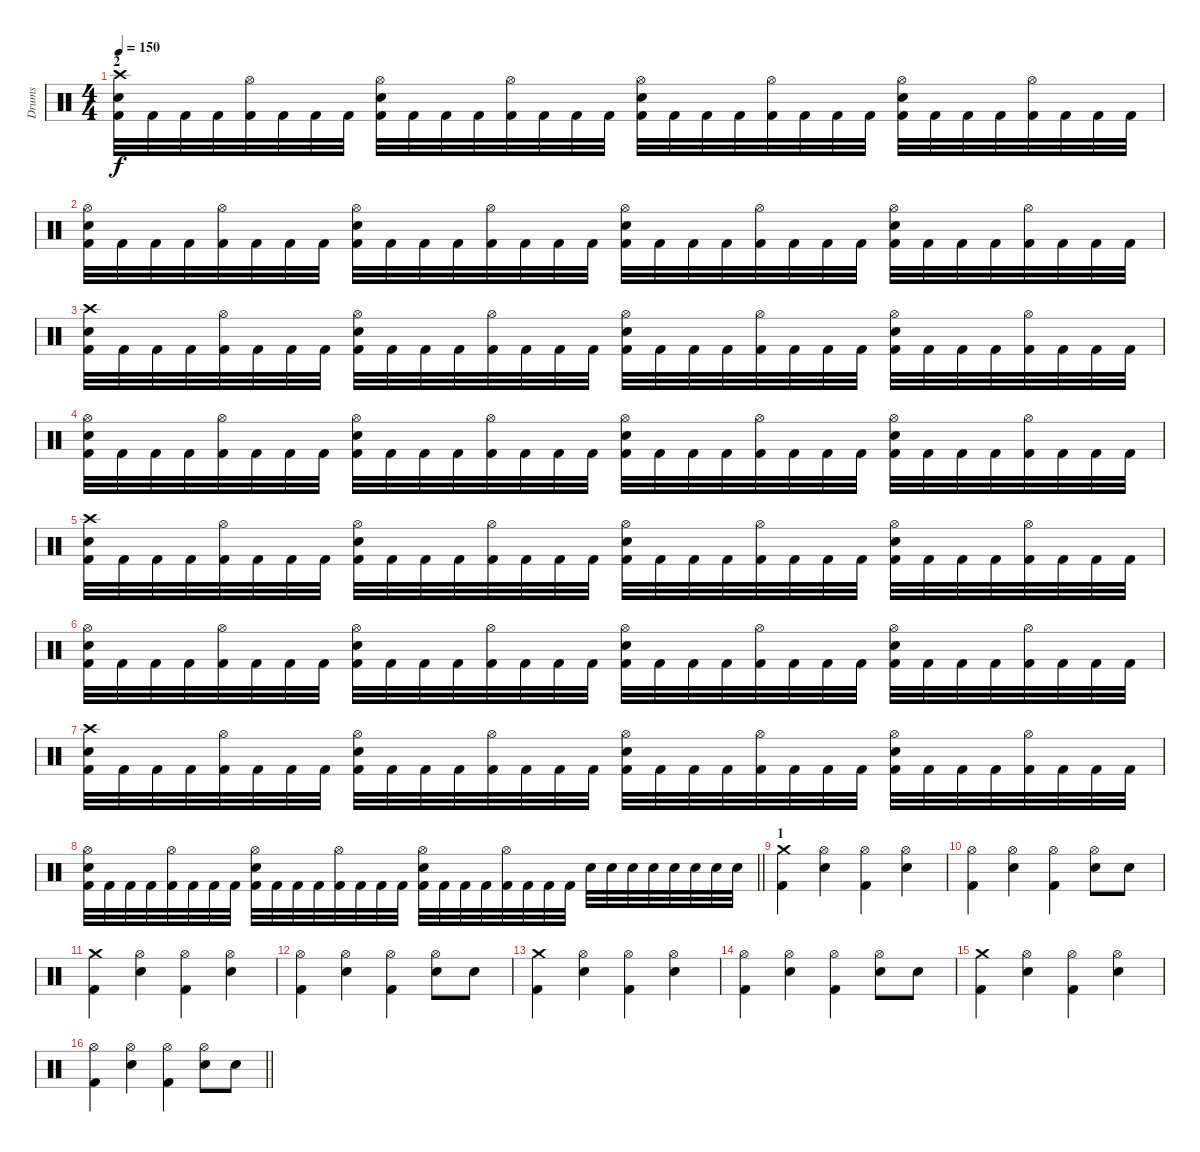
\track ("Drums" "Drums") {instrument percussion}
\staff {score}
\articulation defaults
\ts (4 4)
\section ("" "2")
\tempo 150
\clef neutral
\ks c
("Crash high (hit)" "Snare (hit) 2" "Kick (hit) 2").32{dy f} "Kick (hit) 2".32 "Kick (hit) 2".32 "Kick (hit) 2".32 ("Hi-Hat (open)" "Kick (hit) 2").32 "Kick (hit) 2".32 "Kick (hit) 2".32 "Kick (hit) 2".32 ("Hi-Hat (open)" "Snare (hit) 2" "Kick (hit) 2").32 "Kick (hit) 2".32 "Kick (hit) 2".32 "Kick (hit) 2".32 ("Hi-Hat (open)" "Kick (hit) 2").32 "Kick (hit) 2".32 "Kick (hit) 2".32 "Kick (hit) 2".32 ("Hi-Hat (open)" "Snare (hit) 2" "Kick (hit) 2").32 "Kick (hit) 2".32 "Kick (hit) 2".32 "Kick (hit) 2".32 ("Hi-Hat (open)" "Kick (hit) 2").32 "Kick (hit) 2".32 "Kick (hit) 2".32 "Kick (hit) 2".32 ("Hi-Hat (open)" "Snare (hit) 2" "Kick (hit) 2").32 "Kick (hit) 2".32 "Kick (hit) 2".32 "Kick (hit) 2".32 ("Hi-Hat (open)" "Kick (hit) 2").32 "Kick (hit) 2".32 "Kick (hit) 2".32 "Kick (hit) 2".32 |
("Hi-Hat (open)" "Snare (hit) 2" "Kick (hit) 2").32 "Kick (hit) 2".32 "Kick (hit) 2".32 "Kick (hit) 2".32 ("Hi-Hat (open)" "Kick (hit) 2").32 "Kick (hit) 2".32 "Kick (hit) 2".32 "Kick (hit) 2".32 ("Hi-Hat (open)" "Snare (hit) 2" "Kick (hit) 2").32 "Kick (hit) 2".32 "Kick (hit) 2".32 "Kick (hit) 2".32 ("Hi-Hat (open)" "Kick (hit) 2").32 "Kick (hit) 2".32 "Kick (hit) 2".32 "Kick (hit) 2".32 ("Hi-Hat (open)" "Snare (hit) 2" "Kick (hit) 2").32 "Kick (hit) 2".32 "Kick (hit) 2".32 "Kick (hit) 2".32 ("Hi-Hat (open)" "Kick (hit) 2").32 "Kick (hit) 2".32 "Kick (hit) 2".32 "Kick (hit) 2".32 ("Hi-Hat (open)" "Snare (hit) 2" "Kick (hit) 2").32 "Kick (hit) 2".32 "Kick (hit) 2".32 "Kick (hit) 2".32 ("Hi-Hat (open)" "Kick (hit) 2").32 "Kick (hit) 2".32 "Kick (hit) 2".32 "Kick (hit) 2".32 |
("Crash high (hit)" "Snare (hit) 2" "Kick (hit) 2").32 "Kick (hit) 2".32 "Kick (hit) 2".32 "Kick (hit) 2".32 ("Hi-Hat (open)" "Kick (hit) 2").32 "Kick (hit) 2".32 "Kick (hit) 2".32 "Kick (hit) 2".32 ("Hi-Hat (open)" "Snare (hit) 2" "Kick (hit) 2").32 "Kick (hit) 2".32 "Kick (hit) 2".32 "Kick (hit) 2".32 ("Hi-Hat (open)" "Kick (hit) 2").32 "Kick (hit) 2".32 "Kick (hit) 2".32 "Kick (hit) 2".32 ("Hi-Hat (open)" "Snare (hit) 2" "Kick (hit) 2").32 "Kick (hit) 2".32 "Kick (hit) 2".32 "Kick (hit) 2".32 ("Hi-Hat (open)" "Kick (hit) 2").32 "Kick (hit) 2".32 "Kick (hit) 2".32 "Kick (hit) 2".32 ("Hi-Hat (open)" "Snare (hit) 2" "Kick (hit) 2").32 "Kick (hit) 2".32 "Kick (hit) 2".32 "Kick (hit) 2".32 ("Hi-Hat (open)" "Kick (hit) 2").32 "Kick (hit) 2".32 "Kick (hit) 2".32 "Kick (hit) 2".32 |
("Hi-Hat (open)" "Snare (hit) 2" "Kick (hit) 2").32 "Kick (hit) 2".32 "Kick (hit) 2".32 "Kick (hit) 2".32 ("Hi-Hat (open)" "Kick (hit) 2").32 "Kick (hit) 2".32 "Kick (hit) 2".32 "Kick (hit) 2".32 ("Hi-Hat (open)" "Snare (hit) 2" "Kick (hit) 2").32 "Kick (hit) 2".32 "Kick (hit) 2".32 "Kick (hit) 2".32 ("Hi-Hat (open)" "Kick (hit) 2").32 "Kick (hit) 2".32 "Kick (hit) 2".32 "Kick (hit) 2".32 ("Hi-Hat (open)" "Snare (hit) 2" "Kick (hit) 2").32 "Kick (hit) 2".32 "Kick (hit) 2".32 "Kick (hit) 2".32 ("Hi-Hat (open)" "Kick (hit) 2").32 "Kick (hit) 2".32 "Kick (hit) 2".32 "Kick (hit) 2".32 ("Hi-Hat (open)" "Snare (hit) 2" "Kick (hit) 2").32 "Kick (hit) 2".32 "Kick (hit) 2".32 "Kick (hit) 2".32 ("Hi-Hat (open)" "Kick (hit) 2").32 "Kick (hit) 2".32 "Kick (hit) 2".32 "Kick (hit) 2".32 |
("Crash high (hit)" "Snare (hit) 2" "Kick (hit) 2").32 "Kick (hit) 2".32 "Kick (hit) 2".32 "Kick (hit) 2".32 ("Hi-Hat (open)" "Kick (hit) 2").32 "Kick (hit) 2".32 "Kick (hit) 2".32 "Kick (hit) 2".32 ("Hi-Hat (open)" "Snare (hit) 2" "Kick (hit) 2").32 "Kick (hit) 2".32 "Kick (hit) 2".32 "Kick (hit) 2".32 ("Hi-Hat (open)" "Kick (hit) 2").32 "Kick (hit) 2".32 "Kick (hit) 2".32 "Kick (hit) 2".32 ("Hi-Hat (open)" "Snare (hit) 2" "Kick (hit) 2").32 "Kick (hit) 2".32 "Kick (hit) 2".32 "Kick (hit) 2".32 ("Hi-Hat (open)" "Kick (hit) 2").32 "Kick (hit) 2".32 "Kick (hit) 2".32 "Kick (hit) 2".32 ("Hi-Hat (open)" "Snare (hit) 2" "Kick (hit) 2").32 "Kick (hit) 2".32 "Kick (hit) 2".32 "Kick (hit) 2".32 ("Hi-Hat (open)" "Kick (hit) 2").32 "Kick (hit) 2".32 "Kick (hit) 2".32 "Kick (hit) 2".32 |
("Hi-Hat (open)" "Snare (hit) 2" "Kick (hit) 2").32 "Kick (hit) 2".32 "Kick (hit) 2".32 "Kick (hit) 2".32 ("Hi-Hat (open)" "Kick (hit) 2").32 "Kick (hit) 2".32 "Kick (hit) 2".32 "Kick (hit) 2".32 ("Hi-Hat (open)" "Snare (hit) 2" "Kick (hit) 2").32 "Kick (hit) 2".32 "Kick (hit) 2".32 "Kick (hit) 2".32 ("Hi-Hat (open)" "Kick (hit) 2").32 "Kick (hit) 2".32 "Kick (hit) 2".32 "Kick (hit) 2".32 ("Hi-Hat (open)" "Snare (hit) 2" "Kick (hit) 2").32 "Kick (hit) 2".32 "Kick (hit) 2".32 "Kick (hit) 2".32 ("Hi-Hat (open)" "Kick (hit) 2").32 "Kick (hit) 2".32 "Kick (hit) 2".32 "Kick (hit) 2".32 ("Hi-Hat (open)" "Snare (hit) 2" "Kick (hit) 2").32 "Kick (hit) 2".32 "Kick (hit) 2".32 "Kick (hit) 2".32 ("Hi-Hat (open)" "Kick (hit) 2").32 "Kick (hit) 2".32 "Kick (hit) 2".32 "Kick (hit) 2".32 |
("Crash high (hit)" "Snare (hit) 2" "Kick (hit) 2").32 "Kick (hit) 2".32 "Kick (hit) 2".32 "Kick (hit) 2".32 ("Hi-Hat (open)" "Kick (hit) 2").32 "Kick (hit) 2".32 "Kick (hit) 2".32 "Kick (hit) 2".32 ("Hi-Hat (open)" "Snare (hit) 2" "Kick (hit) 2").32 "Kick (hit) 2".32 "Kick (hit) 2".32 "Kick (hit) 2".32 ("Hi-Hat (open)" "Kick (hit) 2").32 "Kick (hit) 2".32 "Kick (hit) 2".32 "Kick (hit) 2".32 ("Hi-Hat (open)" "Snare (hit) 2" "Kick (hit) 2").32 "Kick (hit) 2".32 "Kick (hit) 2".32 "Kick (hit) 2".32 ("Hi-Hat (open)" "Kick (hit) 2").32 "Kick (hit) 2".32 "Kick (hit) 2".32 "Kick (hit) 2".32 ("Hi-Hat (open)" "Snare (hit) 2" "Kick (hit) 2").32 "Kick (hit) 2".32 "Kick (hit) 2".32 "Kick (hit) 2".32 ("Hi-Hat (open)" "Kick (hit) 2").32 "Kick (hit) 2".32 "Kick (hit) 2".32 "Kick (hit) 2".32 |
\barLineRight lightlight
("Hi-Hat (open)" "Snare (hit) 2" "Kick (hit) 2").32 "Kick (hit) 2".32 "Kick (hit) 2".32 "Kick (hit) 2".32 ("Hi-Hat (open)" "Kick (hit) 2").32 "Kick (hit) 2".32 "Kick (hit) 2".32 "Kick (hit) 2".32 ("Hi-Hat (open)" "Snare (hit) 2" "Kick (hit) 2").32 "Kick (hit) 2".32 "Kick (hit) 2".32 "Kick (hit) 2".32 ("Hi-Hat (open)" "Kick (hit) 2").32 "Kick (hit) 2".32 "Kick (hit) 2".32 "Kick (hit) 2".32 ("Hi-Hat (open)" "Snare (hit) 2" "Kick (hit) 2").32 "Kick (hit) 2".32 "Kick (hit) 2".32 "Kick (hit) 2".32 ("Hi-Hat (open)" "Kick (hit) 2").32 "Kick (hit) 2".32 "Kick (hit) 2".32 "Kick (hit) 2".32 "Snare (hit) 2".32 "Snare (hit) 2".32 "Snare (hit) 2".32 "Snare (hit) 2".32 "Snare (hit) 2".32 "Snare (hit) 2".32 "Snare (hit) 2".32 "Snare (hit) 2".32 |
\section ("" "1")
("Crash medium (hit)" "Kick (hit) 2").4 ("Hi-Hat (open)" "Snare (hit) 2").4 ("Hi-Hat (open)" "Kick (hit) 2").4 ("Hi-Hat (open)" "Snare (hit) 2").4 |
("Hi-Hat (open)" "Kick (hit) 2").4 ("Hi-Hat (open)" "Snare (hit) 2").4 ("Hi-Hat (open)" "Kick (hit) 2").4 ("Hi-Hat (open)" "Snare (hit) 2").8 "Snare (hit) 2".8 |
("Crash medium (hit)" "Kick (hit) 2").4 ("Hi-Hat (open)" "Snare (hit) 2").4 ("Hi-Hat (open)" "Kick (hit) 2").4 ("Hi-Hat (open)" "Snare (hit) 2").4 |
("Hi-Hat (open)" "Kick (hit) 2").4 ("Hi-Hat (open)" "Snare (hit) 2").4 ("Hi-Hat (open)" "Kick (hit) 2").4 ("Hi-Hat (open)" "Snare (hit) 2").8 "Snare (hit) 2".8 |
("Crash medium (hit)" "Kick (hit) 2").4 ("Hi-Hat (open)" "Snare (hit) 2").4 ("Hi-Hat (open)" "Kick (hit) 2").4 ("Hi-Hat (open)" "Snare (hit) 2").4 |
("Hi-Hat (open)" "Kick (hit) 2").4 ("Hi-Hat (open)" "Snare (hit) 2").4 ("Hi-Hat (open)" "Kick (hit) 2").4 ("Hi-Hat (open)" "Snare (hit) 2").8 "Snare (hit) 2".8 |
("Crash medium (hit)" "Kick (hit) 2").4 ("Hi-Hat (open)" "Snare (hit) 2").4 ("Hi-Hat (open)" "Kick (hit) 2").4 ("Hi-Hat (open)" "Snare (hit) 2").4 |
\barLineRight lightlight
("Hi-Hat (open)" "Kick (hit) 2").4 ("Hi-Hat (open)" "Snare (hit) 2").4 ("Hi-Hat (open)" "Kick (hit) 2").4 ("Hi-Hat (open)" "Snare (hit) 2").8 "Snare (hit) 2".8
